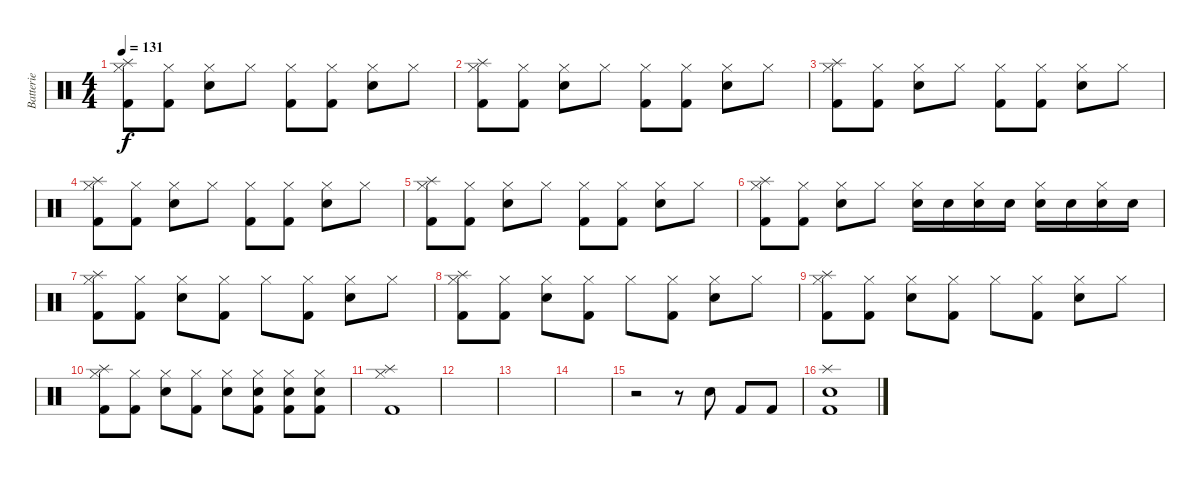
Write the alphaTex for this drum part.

\track ("Batterie" "Batterie") {instrument percussion}
\staff {score}
\articulation defaults
\ts (4 4)
\tempo 131
\clef neutral
\ks c
("Splash (hit)" "Hi-Hat (closed)" "Kick (hit) 2").8{dy f} ("Hi-Hat (closed)" "Kick (hit) 2").8 ("Hi-Hat (closed)" "Snare (hit) 2").8 "Hi-Hat (closed)".8 ("Hi-Hat (closed)" "Kick (hit) 2").8 ("Hi-Hat (closed)" "Kick (hit) 2").8 ("Hi-Hat (closed)" "Snare (hit) 2").8 "Hi-Hat (closed)".8 |
("Splash (hit)" "Hi-Hat (closed)" "Kick (hit) 2").8 ("Hi-Hat (closed)" "Kick (hit) 2").8 ("Hi-Hat (closed)" "Snare (hit) 2").8 "Hi-Hat (closed)".8 ("Hi-Hat (closed)" "Kick (hit) 2").8 ("Hi-Hat (closed)" "Kick (hit) 2").8 ("Hi-Hat (closed)" "Snare (hit) 2").8 "Hi-Hat (closed)".8 |
("Splash (hit)" "Hi-Hat (closed)" "Kick (hit) 2").8 ("Hi-Hat (closed)" "Kick (hit) 2").8 ("Hi-Hat (closed)" "Snare (hit) 2").8 "Hi-Hat (closed)".8 ("Hi-Hat (closed)" "Kick (hit) 2").8 ("Hi-Hat (closed)" "Kick (hit) 2").8 ("Hi-Hat (closed)" "Snare (hit) 2").8 "Hi-Hat (closed)".8 |
("Splash (hit)" "Hi-Hat (closed)" "Kick (hit) 2").8 ("Hi-Hat (closed)" "Kick (hit) 2").8 ("Hi-Hat (closed)" "Snare (hit) 2").8 "Hi-Hat (closed)".8 ("Hi-Hat (closed)" "Kick (hit) 2").8 ("Hi-Hat (closed)" "Kick (hit) 2").8 ("Hi-Hat (closed)" "Snare (hit) 2").8 "Hi-Hat (closed)".8 |
("Splash (hit)" "Hi-Hat (closed)" "Kick (hit) 2").8 ("Hi-Hat (closed)" "Kick (hit) 2").8 ("Hi-Hat (closed)" "Snare (hit) 2").8 "Hi-Hat (closed)".8 ("Hi-Hat (closed)" "Kick (hit) 2").8 ("Hi-Hat (closed)" "Kick (hit) 2").8 ("Hi-Hat (closed)" "Snare (hit) 2").8 "Hi-Hat (closed)".8 |
("Splash (hit)" "Hi-Hat (closed)" "Kick (hit) 2").8 ("Hi-Hat (closed)" "Kick (hit) 2").8 ("Hi-Hat (closed)" "Snare (hit) 2").8 "Hi-Hat (closed)".8 ("Hi-Hat (closed)" "Snare (hit) 2").16 "Snare (hit) 2".16 ("Hi-Hat (closed)" "Snare (hit) 2").16 "Snare (hit) 2".16 ("Hi-Hat (closed)" "Snare (hit) 2").16 "Snare (hit) 2".16 ("Hi-Hat (closed)" "Snare (hit) 2").16 "Snare (hit) 2".16 |
("Splash (hit)" "Hi-Hat (closed)" "Kick (hit) 2").8 ("Hi-Hat (closed)" "Kick (hit) 2").8 ("Hi-Hat (closed)" "Snare (hit) 2").8 ("Hi-Hat (closed)" "Kick (hit) 2").8 "Hi-Hat (closed)".8 ("Hi-Hat (closed)" "Kick (hit) 2").8 ("Hi-Hat (closed)" "Snare (hit) 2").8 "Hi-Hat (closed)".8 |
("Splash (hit)" "Hi-Hat (closed)" "Kick (hit) 2").8 ("Hi-Hat (closed)" "Kick (hit) 2").8 ("Hi-Hat (closed)" "Snare (hit) 2").8 ("Hi-Hat (closed)" "Kick (hit) 2").8 "Hi-Hat (closed)".8 ("Hi-Hat (closed)" "Kick (hit) 2").8 ("Hi-Hat (closed)" "Snare (hit) 2").8 "Hi-Hat (closed)".8 |
("Splash (hit)" "Hi-Hat (closed)" "Kick (hit) 2").8 ("Hi-Hat (closed)" "Kick (hit) 2").8 ("Hi-Hat (closed)" "Snare (hit) 2").8 ("Hi-Hat (closed)" "Kick (hit) 2").8 "Hi-Hat (closed)".8 ("Hi-Hat (closed)" "Kick (hit) 2").8 ("Hi-Hat (closed)" "Snare (hit) 2").8 "Hi-Hat (closed)".8 |
("Splash (hit)" "Hi-Hat (closed)" "Kick (hit) 2").8 ("Hi-Hat (closed)" "Kick (hit) 2").8 ("Hi-Hat (closed)" "Snare (hit) 2").8 ("Hi-Hat (closed)" "Kick (hit) 2").8 ("Hi-Hat (closed)" "Snare (hit) 2").8 ("Hi-Hat (closed)" "Snare (hit) 2" "Kick (hit) 2").8 ("Hi-Hat (closed)" "Snare (hit) 2" "Kick (hit) 2").8 ("Hi-Hat (closed)" "Snare (hit) 2" "Kick (hit) 2").8 |
("Hi-Hat (closed)" "Splash (hit)" "Kick (hit) 2").1 |
|
|
|
r.2 r.8 "Snare (hit) 2".8 "Kick (hit) 2".8 "Kick (hit) 2".8 |
("Splash (hit)" "Snare (hit) 2" "Kick (hit) 2").1
